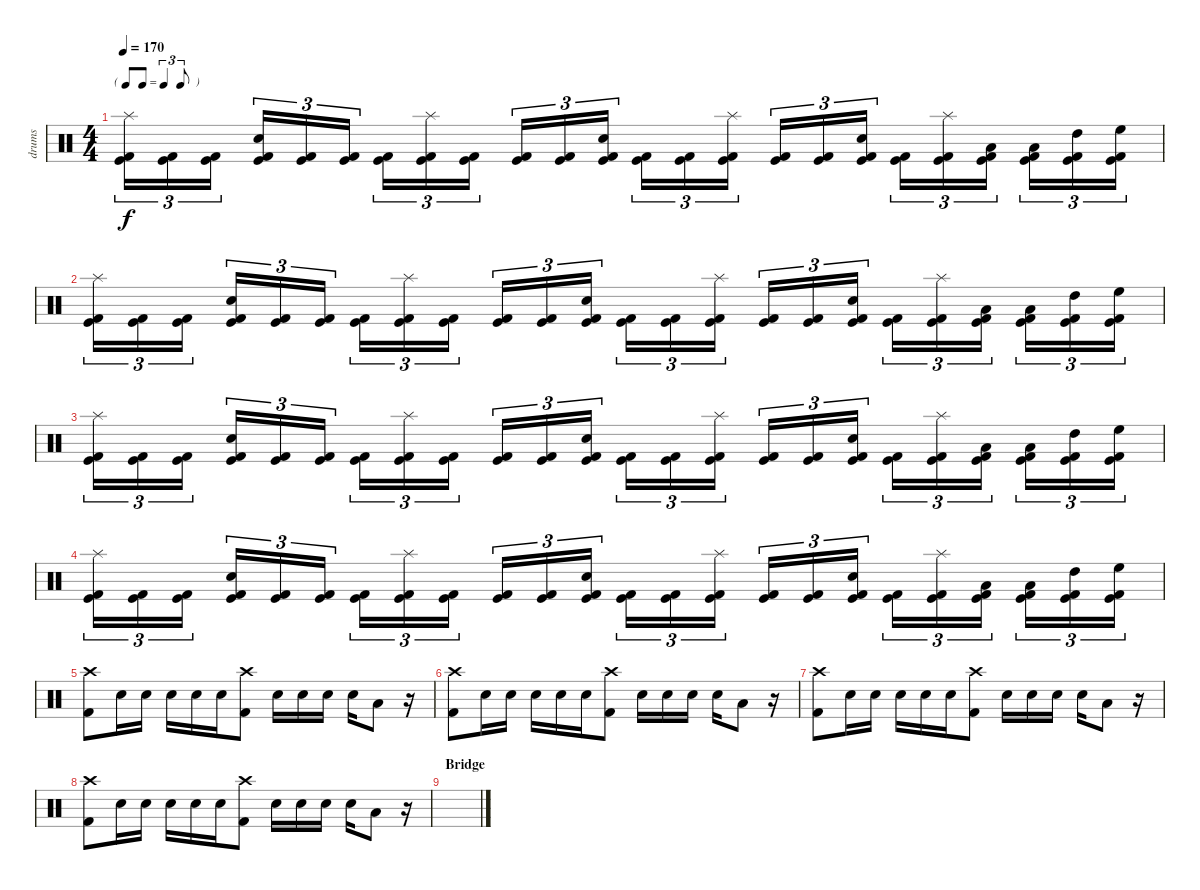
\track ("drums" "drums") {instrument percussion}
\staff {score}
\articulation defaults
\ts (4 4)
\tf triplet8th
\tempo 170
\clef neutral
\ks c
("Splash (hit)" "Kick (hit) 2" "Kick (hit)").16{tu (3 2) dy f} ("Kick (hit) 2" "Kick (hit)").16{tu (3 2)} ("Kick (hit) 2" "Kick (hit)").16{tu (3 2)} ("Electric Snare (hit)" "Kick (hit) 2" "Kick (hit)").16{tu (3 2)} ("Kick (hit) 2" "Kick (hit)").16{tu (3 2)} ("Kick (hit) 2" "Kick (hit)").16{tu (3 2)} ("Kick (hit) 2" "Kick (hit)").16{tu (3 2)} ("Splash (hit)" "Kick (hit) 2" "Kick (hit)").16{tu (3 2)} ("Kick (hit) 2" "Kick (hit)").16{tu (3 2)} ("Kick (hit) 2" "Kick (hit)").16{tu (3 2)} ("Kick (hit) 2" "Kick (hit)").16{tu (3 2)} ("Electric Snare (hit)" "Kick (hit) 2" "Kick (hit)").16{tu (3 2)} ("Kick (hit) 2" "Kick (hit)").16{tu (3 2)} ("Kick (hit) 2" "Kick (hit)").16{tu (3 2)} ("Splash (hit)" "Kick (hit) 2" "Kick (hit)").16{tu (3 2)} ("Kick (hit) 2" "Kick (hit)").16{tu (3 2)} ("Kick (hit) 2" "Kick (hit)").16{tu (3 2)} ("Electric Snare (hit)" "Kick (hit) 2" "Kick (hit)").16{tu (3 2)} ("Kick (hit) 2" "Kick (hit)").16{tu (3 2)} ("Splash (hit)" "Kick (hit) 2" "Kick (hit)").16{tu (3 2)} ("Low Floor Tom (hit)" "Kick (hit) 2" "Kick (hit)").16{tu (3 2)} ("Low Tom (hit)" "Kick (hit) 2" "Kick (hit)").16{tu (3 2)} ("High Tom (hit)" "Kick (hit) 2" "Kick (hit)").16{tu (3 2)} ("High Floor Tom (hit)" "Kick (hit) 2" "Kick (hit)").16{tu (3 2)} |
("Splash (hit)" "Kick (hit) 2" "Kick (hit)").16{tu (3 2)} ("Kick (hit) 2" "Kick (hit)").16{tu (3 2)} ("Kick (hit) 2" "Kick (hit)").16{tu (3 2)} ("Electric Snare (hit)" "Kick (hit) 2" "Kick (hit)").16{tu (3 2)} ("Kick (hit) 2" "Kick (hit)").16{tu (3 2)} ("Kick (hit) 2" "Kick (hit)").16{tu (3 2)} ("Kick (hit) 2" "Kick (hit)").16{tu (3 2)} ("Splash (hit)" "Kick (hit) 2" "Kick (hit)").16{tu (3 2)} ("Kick (hit) 2" "Kick (hit)").16{tu (3 2)} ("Kick (hit) 2" "Kick (hit)").16{tu (3 2)} ("Kick (hit) 2" "Kick (hit)").16{tu (3 2)} ("Electric Snare (hit)" "Kick (hit) 2" "Kick (hit)").16{tu (3 2)} ("Kick (hit) 2" "Kick (hit)").16{tu (3 2)} ("Kick (hit) 2" "Kick (hit)").16{tu (3 2)} ("Splash (hit)" "Kick (hit) 2" "Kick (hit)").16{tu (3 2)} ("Kick (hit) 2" "Kick (hit)").16{tu (3 2)} ("Kick (hit) 2" "Kick (hit)").16{tu (3 2)} ("Electric Snare (hit)" "Kick (hit) 2" "Kick (hit)").16{tu (3 2)} ("Kick (hit) 2" "Kick (hit)").16{tu (3 2)} ("Splash (hit)" "Kick (hit) 2" "Kick (hit)").16{tu (3 2)} ("Low Floor Tom (hit)" "Kick (hit) 2" "Kick (hit)").16{tu (3 2)} ("Low Tom (hit)" "Kick (hit) 2" "Kick (hit)").16{tu (3 2)} ("High Tom (hit)" "Kick (hit) 2" "Kick (hit)").16{tu (3 2)} ("High Floor Tom (hit)" "Kick (hit) 2" "Kick (hit)").16{tu (3 2)} |
("Splash (hit)" "Kick (hit) 2" "Kick (hit)").16{tu (3 2)} ("Kick (hit) 2" "Kick (hit)").16{tu (3 2)} ("Kick (hit) 2" "Kick (hit)").16{tu (3 2)} ("Electric Snare (hit)" "Kick (hit) 2" "Kick (hit)").16{tu (3 2)} ("Kick (hit) 2" "Kick (hit)").16{tu (3 2)} ("Kick (hit) 2" "Kick (hit)").16{tu (3 2)} ("Kick (hit) 2" "Kick (hit)").16{tu (3 2)} ("Splash (hit)" "Kick (hit) 2" "Kick (hit)").16{tu (3 2)} ("Kick (hit) 2" "Kick (hit)").16{tu (3 2)} ("Kick (hit) 2" "Kick (hit)").16{tu (3 2)} ("Kick (hit) 2" "Kick (hit)").16{tu (3 2)} ("Electric Snare (hit)" "Kick (hit) 2" "Kick (hit)").16{tu (3 2)} ("Kick (hit) 2" "Kick (hit)").16{tu (3 2)} ("Kick (hit) 2" "Kick (hit)").16{tu (3 2)} ("Splash (hit)" "Kick (hit) 2" "Kick (hit)").16{tu (3 2)} ("Kick (hit) 2" "Kick (hit)").16{tu (3 2)} ("Kick (hit) 2" "Kick (hit)").16{tu (3 2)} ("Electric Snare (hit)" "Kick (hit) 2" "Kick (hit)").16{tu (3 2)} ("Kick (hit) 2" "Kick (hit)").16{tu (3 2)} ("Splash (hit)" "Kick (hit) 2" "Kick (hit)").16{tu (3 2)} ("Low Floor Tom (hit)" "Kick (hit) 2" "Kick (hit)").16{tu (3 2)} ("Low Tom (hit)" "Kick (hit) 2" "Kick (hit)").16{tu (3 2)} ("High Tom (hit)" "Kick (hit) 2" "Kick (hit)").16{tu (3 2)} ("High Floor Tom (hit)" "Kick (hit) 2" "Kick (hit)").16{tu (3 2)} |
("Splash (hit)" "Kick (hit) 2" "Kick (hit)").16{tu (3 2)} ("Kick (hit) 2" "Kick (hit)").16{tu (3 2)} ("Kick (hit) 2" "Kick (hit)").16{tu (3 2)} ("Electric Snare (hit)" "Kick (hit) 2" "Kick (hit)").16{tu (3 2)} ("Kick (hit) 2" "Kick (hit)").16{tu (3 2)} ("Kick (hit) 2" "Kick (hit)").16{tu (3 2)} ("Kick (hit) 2" "Kick (hit)").16{tu (3 2)} ("Splash (hit)" "Kick (hit) 2" "Kick (hit)").16{tu (3 2)} ("Kick (hit) 2" "Kick (hit)").16{tu (3 2)} ("Kick (hit) 2" "Kick (hit)").16{tu (3 2)} ("Kick (hit) 2" "Kick (hit)").16{tu (3 2)} ("Electric Snare (hit)" "Kick (hit) 2" "Kick (hit)").16{tu (3 2)} ("Kick (hit) 2" "Kick (hit)").16{tu (3 2)} ("Kick (hit) 2" "Kick (hit)").16{tu (3 2)} ("Splash (hit)" "Kick (hit) 2" "Kick (hit)").16{tu (3 2)} ("Kick (hit) 2" "Kick (hit)").16{tu (3 2)} ("Kick (hit) 2" "Kick (hit)").16{tu (3 2)} ("Electric Snare (hit)" "Kick (hit) 2" "Kick (hit)").16{tu (3 2)} ("Kick (hit) 2" "Kick (hit)").16{tu (3 2)} ("Splash (hit)" "Kick (hit) 2" "Kick (hit)").16{tu (3 2)} ("Low Floor Tom (hit)" "Kick (hit) 2" "Kick (hit)").16{tu (3 2)} ("Low Tom (hit)" "Kick (hit) 2" "Kick (hit)").16{tu (3 2)} ("High Tom (hit)" "Kick (hit) 2" "Kick (hit)").16{tu (3 2)} ("High Floor Tom (hit)" "Kick (hit) 2" "Kick (hit)").16{tu (3 2)} |
("Crash high (hit)" "Kick (hit) 2").8 "Snare (hit) 2".16 "Snare (hit) 2".16 "Snare (hit) 2".16 "Snare (hit) 2".16 "Snare (hit) 2".16 ("Crash high (hit)" "Kick (hit) 2").8 "Snare (hit) 2".16 "Snare (hit) 2".16 "Snare (hit) 2".16 "Snare (hit) 2".16 "Low Floor Tom (hit)".8 r.16 |
("Crash high (hit)" "Kick (hit) 2").8 "Snare (hit) 2".16 "Snare (hit) 2".16 "Snare (hit) 2".16 "Snare (hit) 2".16 "Snare (hit) 2".16 ("Crash high (hit)" "Kick (hit) 2").8 "Snare (hit) 2".16 "Snare (hit) 2".16 "Snare (hit) 2".16 "Snare (hit) 2".16 "Low Floor Tom (hit)".8 r.16 |
("Crash high (hit)" "Kick (hit) 2").8 "Snare (hit) 2".16 "Snare (hit) 2".16 "Snare (hit) 2".16 "Snare (hit) 2".16 "Snare (hit) 2".16 ("Crash high (hit)" "Kick (hit) 2").8 "Snare (hit) 2".16 "Snare (hit) 2".16 "Snare (hit) 2".16 "Snare (hit) 2".16 "Low Floor Tom (hit)".8 r.16 |
("Crash high (hit)" "Kick (hit) 2").8 "Snare (hit) 2".16 "Snare (hit) 2".16 "Snare (hit) 2".16 "Snare (hit) 2".16 "Snare (hit) 2".16 ("Crash high (hit)" "Kick (hit) 2").8 "Snare (hit) 2".16 "Snare (hit) 2".16 "Snare (hit) 2".16 "Snare (hit) 2".16 "Low Floor Tom (hit)".8 r.16 |
\section ("" "Bridge")
